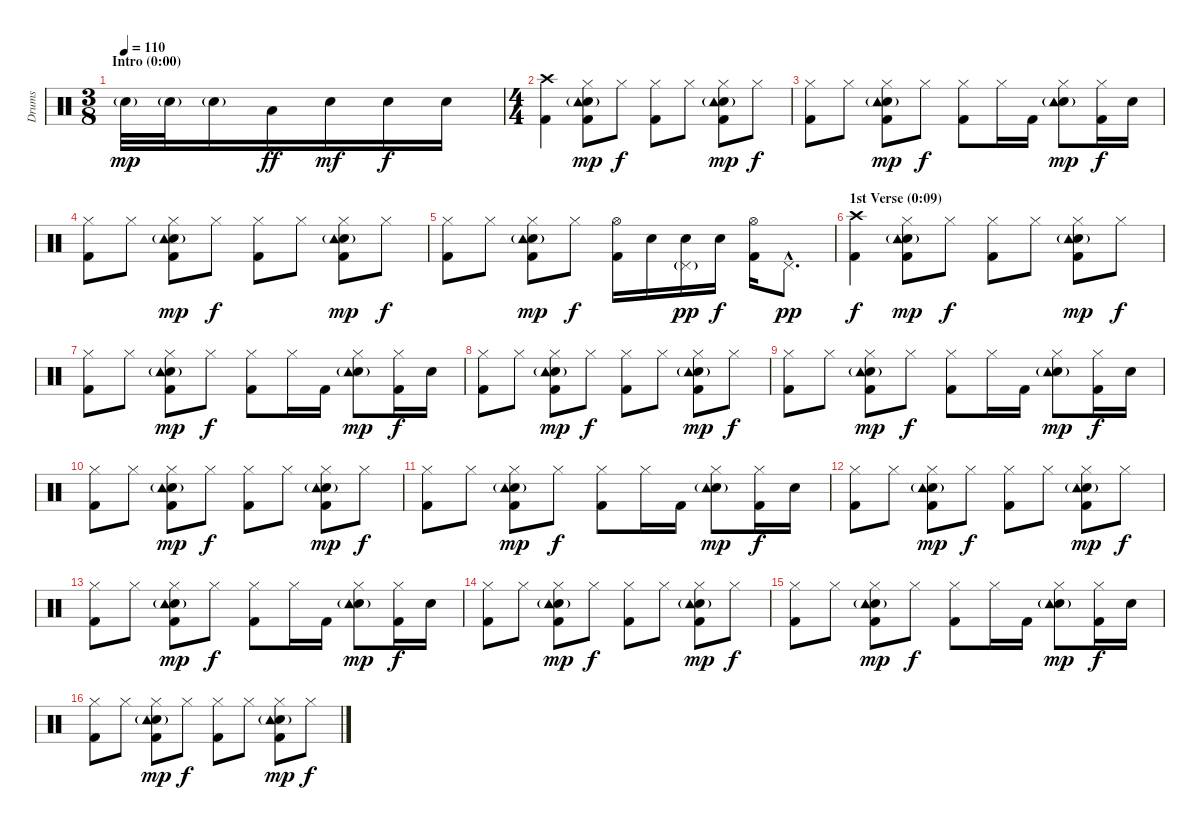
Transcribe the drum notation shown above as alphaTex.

\track ("Drums" "Drums") {instrument percussion}
\staff {score}
\articulation defaults
\ts (3 8)
\section ("" "Intro (0:00)")
\tempo 110
\clef neutral
\ks c "Snare (hit) 2"{g}.32{dy mp} "Snare (hit) 2"{g}.32 "Snare (hit) 2"{g}.16 "Low Tom (hit)".16{dy ff} "Snare (hit) 2".16{dy mf} "Snare (hit) 2".16{dy f} "Snare (hit) 2".16
|
\ts (4 4)
("Crash high (hit)" "Kick (hit) 2").4 ("Hi-Hat (closed)" "Snare (hit) 2" "Tambourine (hit)"{g} "Kick (hit) 2").8{dy mp} "Hi-Hat (closed)".8{dy f} ("Hi-Hat (closed)" "Kick (hit) 2").8 "Hi-Hat (closed)".8 ("Hi-Hat (closed)" "Snare (hit) 2" "Tambourine (hit)"{g} "Kick (hit) 2").8{dy mp} "Hi-Hat (closed)".8{dy f} |
("Hi-Hat (closed)" "Kick (hit) 2").8 "Hi-Hat (closed)".8 ("Hi-Hat (closed)" "Snare (hit) 2" "Tambourine (hit)"{g} "Kick (hit) 2").8{dy mp} "Hi-Hat (closed)".8{dy f} ("Hi-Hat (closed)" "Kick (hit) 2").8 "Hi-Hat (closed)".16 "Kick (hit) 2".16 ("Hi-Hat (closed)" "Snare (hit) 2" "Tambourine (hit)"{g}).8{dy mp} ("Hi-Hat (closed)" "Kick (hit) 2").16{dy f} "Snare (hit) 2".16 |
("Hi-Hat (closed)" "Kick (hit) 2").8 "Hi-Hat (closed)".8 ("Hi-Hat (closed)" "Snare (hit) 2" "Tambourine (hit)"{g} "Kick (hit) 2").8{dy mp} "Hi-Hat (closed)".8{dy f} ("Hi-Hat (closed)" "Kick (hit) 2").8 "Hi-Hat (closed)".8 ("Hi-Hat (closed)" "Snare (hit) 2" "Tambourine (hit)"{g} "Kick (hit) 2").8{dy mp} "Hi-Hat (closed)".8{dy f} |
("Hi-Hat (closed)" "Kick (hit) 2").8 "Hi-Hat (closed)".8 ("Hi-Hat (closed)" "Snare (hit) 2" "Tambourine (hit)"{g} "Kick (hit) 2").8{dy mp} "Hi-Hat (closed)".8{dy f} ("Hi-Hat (open)" "Kick (hit) 2").16 "Snare (hit) 2".16 ("Pedal Hi-Hat (hit)"{g} "Snare (hit) 2").16{dy pp} "Snare (hit) 2".16{dy f} ("Hi-Hat (open)" "Kick (hit) 2").16 "Pedal Hi-Hat (hit)"{hac}.8{d dy pp} |
\section ("" "1st Verse (0:09)")
("Crash high (hit)" "Kick (hit) 2").4{dy f} ("Hi-Hat (closed)" "Snare (hit) 2" "Tambourine (hit)"{g} "Kick (hit) 2").8{dy mp} "Hi-Hat (closed)".8{dy f} ("Hi-Hat (closed)" "Kick (hit) 2").8 "Hi-Hat (closed)".8 ("Hi-Hat (closed)" "Snare (hit) 2" "Tambourine (hit)"{g} "Kick (hit) 2").8{dy mp} "Hi-Hat (closed)".8{dy f} |
("Hi-Hat (closed)" "Kick (hit) 2").8 "Hi-Hat (closed)".8 ("Hi-Hat (closed)" "Snare (hit) 2" "Tambourine (hit)"{g} "Kick (hit) 2").8{dy mp} "Hi-Hat (closed)".8{dy f} ("Hi-Hat (closed)" "Kick (hit) 2").8 "Hi-Hat (closed)".16 "Kick (hit) 2".16 ("Hi-Hat (closed)" "Snare (hit) 2" "Tambourine (hit)"{g}).8{dy mp} ("Hi-Hat (closed)" "Kick (hit) 2").16{dy f} "Snare (hit) 2".16 |
("Hi-Hat (closed)" "Kick (hit) 2").8 "Hi-Hat (closed)".8 ("Hi-Hat (closed)" "Snare (hit) 2" "Tambourine (hit)"{g} "Kick (hit) 2").8{dy mp} "Hi-Hat (closed)".8{dy f} ("Hi-Hat (closed)" "Kick (hit) 2").8 "Hi-Hat (closed)".8 ("Hi-Hat (closed)" "Snare (hit) 2" "Tambourine (hit)"{g} "Kick (hit) 2").8{dy mp} "Hi-Hat (closed)".8{dy f} |
("Hi-Hat (closed)" "Kick (hit) 2").8 "Hi-Hat (closed)".8 ("Hi-Hat (closed)" "Snare (hit) 2" "Tambourine (hit)"{g} "Kick (hit) 2").8{dy mp} "Hi-Hat (closed)".8{dy f} ("Hi-Hat (closed)" "Kick (hit) 2").8 "Hi-Hat (closed)".16 "Kick (hit) 2".16 ("Hi-Hat (closed)" "Snare (hit) 2" "Tambourine (hit)"{g}).8{dy mp} ("Hi-Hat (closed)" "Kick (hit) 2").16{dy f} "Snare (hit) 2".16 |
("Hi-Hat (closed)" "Kick (hit) 2").8 "Hi-Hat (closed)".8 ("Hi-Hat (closed)" "Snare (hit) 2" "Tambourine (hit)"{g} "Kick (hit) 2").8{dy mp} "Hi-Hat (closed)".8{dy f} ("Hi-Hat (closed)" "Kick (hit) 2").8 "Hi-Hat (closed)".8 ("Hi-Hat (closed)" "Snare (hit) 2" "Tambourine (hit)"{g} "Kick (hit) 2").8{dy mp} "Hi-Hat (closed)".8{dy f} |
("Hi-Hat (closed)" "Kick (hit) 2").8 "Hi-Hat (closed)".8 ("Hi-Hat (closed)" "Snare (hit) 2" "Tambourine (hit)"{g} "Kick (hit) 2").8{dy mp} "Hi-Hat (closed)".8{dy f} ("Hi-Hat (closed)" "Kick (hit) 2").8 "Hi-Hat (closed)".16 "Kick (hit) 2".16 ("Hi-Hat (closed)" "Snare (hit) 2" "Tambourine (hit)"{g}).8{dy mp} ("Hi-Hat (closed)" "Kick (hit) 2").16{dy f} "Snare (hit) 2".16 |
("Hi-Hat (closed)" "Kick (hit) 2").8 "Hi-Hat (closed)".8 ("Hi-Hat (closed)" "Snare (hit) 2" "Tambourine (hit)"{g} "Kick (hit) 2").8{dy mp} "Hi-Hat (closed)".8{dy f} ("Hi-Hat (closed)" "Kick (hit) 2").8 "Hi-Hat (closed)".8 ("Hi-Hat (closed)" "Snare (hit) 2" "Tambourine (hit)"{g} "Kick (hit) 2").8{dy mp} "Hi-Hat (closed)".8{dy f} |
("Hi-Hat (closed)" "Kick (hit) 2").8 "Hi-Hat (closed)".8 ("Hi-Hat (closed)" "Snare (hit) 2" "Tambourine (hit)"{g} "Kick (hit) 2").8{dy mp} "Hi-Hat (closed)".8{dy f} ("Hi-Hat (closed)" "Kick (hit) 2").8 "Hi-Hat (closed)".16 "Kick (hit) 2".16 ("Hi-Hat (closed)" "Snare (hit) 2" "Tambourine (hit)"{g}).8{dy mp} ("Hi-Hat (closed)" "Kick (hit) 2").16{dy f} "Snare (hit) 2".16 |
("Hi-Hat (closed)" "Kick (hit) 2").8 "Hi-Hat (closed)".8 ("Hi-Hat (closed)" "Snare (hit) 2" "Tambourine (hit)"{g} "Kick (hit) 2").8{dy mp} "Hi-Hat (closed)".8{dy f} ("Hi-Hat (closed)" "Kick (hit) 2").8 "Hi-Hat (closed)".8 ("Hi-Hat (closed)" "Snare (hit) 2" "Tambourine (hit)"{g} "Kick (hit) 2").8{dy mp} "Hi-Hat (closed)".8{dy f} |
("Hi-Hat (closed)" "Kick (hit) 2").8 "Hi-Hat (closed)".8 ("Hi-Hat (closed)" "Snare (hit) 2" "Tambourine (hit)"{g} "Kick (hit) 2").8{dy mp} "Hi-Hat (closed)".8{dy f} ("Hi-Hat (closed)" "Kick (hit) 2").8 "Hi-Hat (closed)".16 "Kick (hit) 2".16 ("Hi-Hat (closed)" "Snare (hit) 2" "Tambourine (hit)"{g}).8{dy mp} ("Hi-Hat (closed)" "Kick (hit) 2").16{dy f} "Snare (hit) 2".16 |
("Hi-Hat (closed)" "Kick (hit) 2").8 "Hi-Hat (closed)".8 ("Hi-Hat (closed)" "Snare (hit) 2" "Tambourine (hit)"{g} "Kick (hit) 2").8{dy mp} "Hi-Hat (closed)".8{dy f} ("Hi-Hat (closed)" "Kick (hit) 2").8 "Hi-Hat (closed)".8 ("Hi-Hat (closed)" "Snare (hit) 2" "Tambourine (hit)"{g} "Kick (hit) 2").8{dy mp} "Hi-Hat (closed)".8{dy f}
